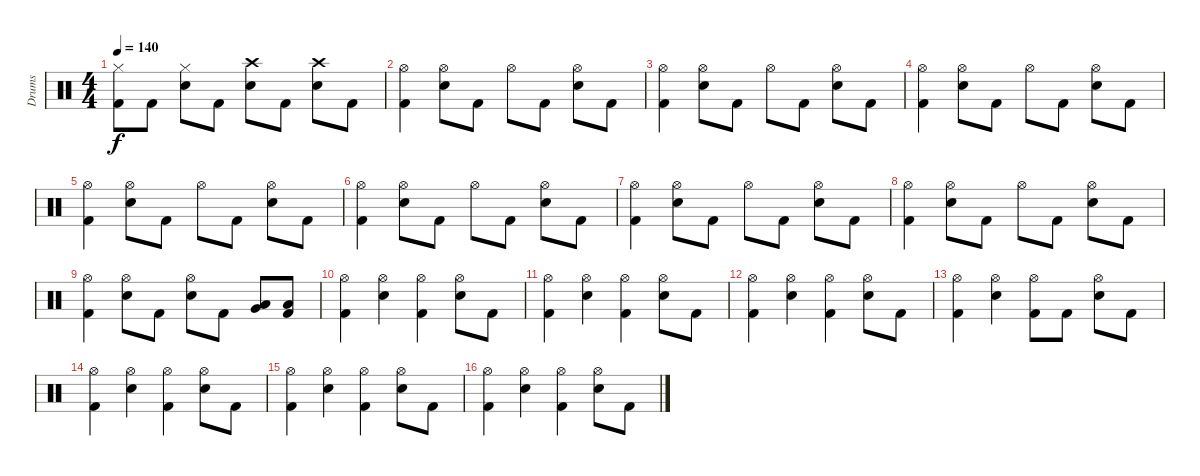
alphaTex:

\track ("Drums" "Drums") {instrument percussion}
\staff {score}
\articulation defaults
\ts (4 4)
\tempo 140
\clef neutral
\ks c
("Hi-Hat (closed)" "Kick (hit) 2").8{dy f} "Kick (hit) 2".8 ("Hi-Hat (closed)" "Electric Snare (hit)").8 "Kick (hit) 2".8 ("Crash high (hit)" "Electric Snare (hit)").8 "Kick (hit) 2".8 ("Crash high (hit)" "Electric Snare (hit)").8 "Kick (hit) 2".8 |
("Hi-Hat (open)" "Kick (hit) 2").4 ("Hi-Hat (open)" "Electric Snare (hit)").8 "Kick (hit) 2".8 "Hi-Hat (open)".8 "Kick (hit) 2".8 ("Hi-Hat (open)" "Electric Snare (hit)").8 "Kick (hit) 2".8 |
("Hi-Hat (open)" "Kick (hit) 2").4 ("Hi-Hat (open)" "Electric Snare (hit)").8 "Kick (hit) 2".8 "Hi-Hat (open)".8 "Kick (hit) 2".8 ("Hi-Hat (open)" "Electric Snare (hit)").8 "Kick (hit) 2".8 |
("Hi-Hat (open)" "Kick (hit) 2").4 ("Hi-Hat (open)" "Electric Snare (hit)").8 "Kick (hit) 2".8 "Hi-Hat (open)".8 "Kick (hit) 2".8 ("Hi-Hat (open)" "Electric Snare (hit)").8 "Kick (hit) 2".8 |
("Hi-Hat (open)" "Kick (hit) 2").4 ("Hi-Hat (open)" "Electric Snare (hit)").8 "Kick (hit) 2".8 "Hi-Hat (open)".8 "Kick (hit) 2".8 ("Hi-Hat (open)" "Electric Snare (hit)").8 "Kick (hit) 2".8 |
("Hi-Hat (open)" "Kick (hit) 2").4 ("Hi-Hat (open)" "Electric Snare (hit)").8 "Kick (hit) 2".8 "Hi-Hat (open)".8 "Kick (hit) 2".8 ("Hi-Hat (open)" "Electric Snare (hit)").8 "Kick (hit) 2".8 |
("Hi-Hat (open)" "Kick (hit) 2").4 ("Hi-Hat (open)" "Electric Snare (hit)").8 "Kick (hit) 2".8 "Hi-Hat (open)".8 "Kick (hit) 2".8 ("Hi-Hat (open)" "Electric Snare (hit)").8 "Kick (hit) 2".8 |
("Hi-Hat (open)" "Kick (hit) 2").4 ("Hi-Hat (open)" "Electric Snare (hit)").8 "Kick (hit) 2".8 "Hi-Hat (open)".8 "Kick (hit) 2".8 ("Hi-Hat (open)" "Electric Snare (hit)").8 "Kick (hit) 2".8 |
("Hi-Hat (open)" "Kick (hit) 2").4 ("Hi-Hat (open)" "Electric Snare (hit)").8 "Kick (hit) 2".8 ("Hi-Hat (open)" "Electric Snare (hit)").8 "Kick (hit) 2".8 ("Low Floor Tom (hit)" "Very Low Tom (hit)").8 ("Low Floor Tom (hit)" "Kick (hit) 2").8 |
("Hi-Hat (open)" "Kick (hit) 2").4 ("Hi-Hat (open)" "Electric Snare (hit)").4 ("Hi-Hat (open)" "Kick (hit) 2").4 ("Hi-Hat (open)" "Electric Snare (hit)").8 "Kick (hit) 2".8 |
("Hi-Hat (open)" "Kick (hit) 2").4 ("Hi-Hat (open)" "Electric Snare (hit)").4 ("Hi-Hat (open)" "Kick (hit) 2").4 ("Hi-Hat (open)" "Electric Snare (hit)").8 "Kick (hit) 2".8 |
("Hi-Hat (open)" "Kick (hit) 2").4 ("Hi-Hat (open)" "Electric Snare (hit)").4 ("Hi-Hat (open)" "Kick (hit) 2").4 ("Hi-Hat (open)" "Electric Snare (hit)").8 "Kick (hit) 2".8 |
("Hi-Hat (open)" "Kick (hit) 2").4 ("Hi-Hat (open)" "Electric Snare (hit)").4 ("Hi-Hat (open)" "Kick (hit) 2").8 "Kick (hit) 2".8 ("Hi-Hat (open)" "Electric Snare (hit)").8 "Kick (hit) 2".8 |
("Hi-Hat (open)" "Kick (hit) 2").4 ("Hi-Hat (open)" "Electric Snare (hit)").4 ("Hi-Hat (open)" "Kick (hit) 2").4 ("Hi-Hat (open)" "Electric Snare (hit)").8 "Kick (hit) 2".8 |
("Hi-Hat (open)" "Kick (hit) 2").4 ("Hi-Hat (open)" "Electric Snare (hit)").4 ("Hi-Hat (open)" "Kick (hit) 2").4 ("Hi-Hat (open)" "Electric Snare (hit)").8 "Kick (hit) 2".8 |
("Hi-Hat (open)" "Kick (hit) 2").4 ("Hi-Hat (open)" "Electric Snare (hit)").4 ("Hi-Hat (open)" "Kick (hit) 2").4 ("Hi-Hat (open)" "Electric Snare (hit)").8 "Kick (hit) 2".8
